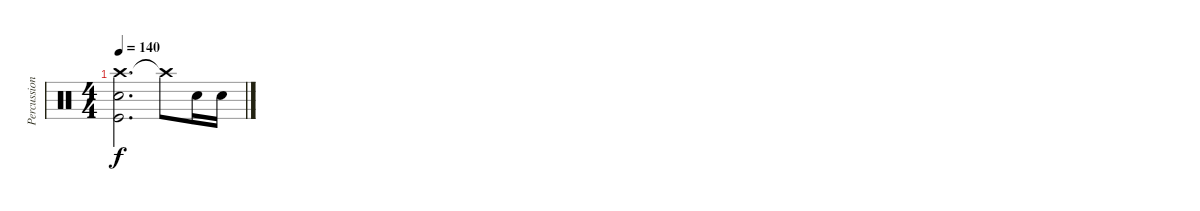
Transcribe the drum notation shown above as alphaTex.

\track ("Percussion" "Percussion") {instrument percussion}
\staff {score}
\articulation defaults
\ts (4 4)
\tempo 140
\clef neutral
\ks c
("Crash high (hit)" "Snare (hit) 2" "Kick (hit)").2{d dy f} "Crash high (hit)"{t}.8 "Snare (hit) 2".16 "Snare (hit) 2".16
